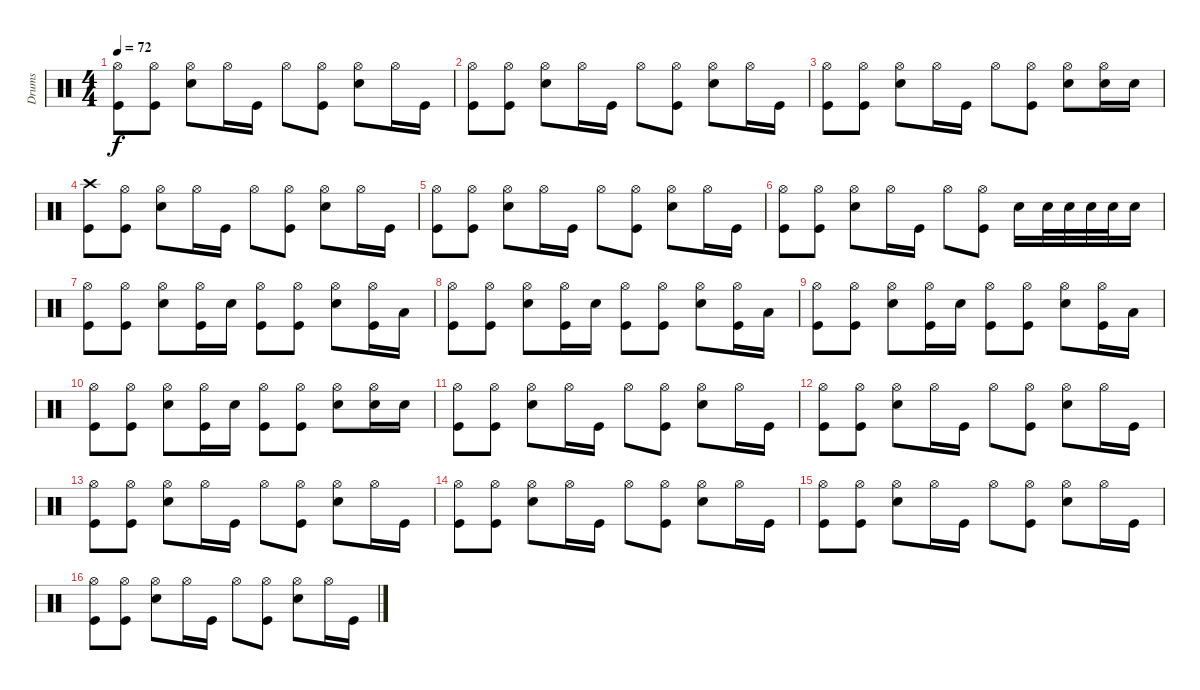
\track ("Drums" "Drums") {instrument percussion}
\staff {score}
\articulation defaults
\ts (4 4)
\tempo 72
\clef neutral
\ks c
("Kick (hit)" "Hi-Hat (open)").8{dy f} ("Kick (hit)" "Hi-Hat (open)").8 ("Snare (hit) 2" "Hi-Hat (open)").8 "Hi-Hat (open)".16 "Kick (hit)".16 "Hi-Hat (open)".8 ("Hi-Hat (open)" "Kick (hit)").8 ("Snare (hit) 2" "Hi-Hat (open)").8 "Hi-Hat (open)".16 "Kick (hit)".16 |
("Kick (hit)" "Hi-Hat (open)").8 ("Kick (hit)" "Hi-Hat (open)").8 ("Snare (hit) 2" "Hi-Hat (open)").8 "Hi-Hat (open)".16 "Kick (hit)".16 "Hi-Hat (open)".8 ("Hi-Hat (open)" "Kick (hit)").8 ("Snare (hit) 2" "Hi-Hat (open)").8 "Hi-Hat (open)".16 "Kick (hit)".16 |
("Kick (hit)" "Hi-Hat (open)").8 ("Kick (hit)" "Hi-Hat (open)").8 ("Snare (hit) 2" "Hi-Hat (open)").8 "Hi-Hat (open)".16 "Kick (hit)".16 "Hi-Hat (open)".8 ("Hi-Hat (open)" "Kick (hit)").8 ("Snare (hit) 2" "Hi-Hat (open)").8 ("Hi-Hat (open)" "Snare (hit) 2").16 "Snare (hit) 2".16 |
("Kick (hit)" "Crash high (hit)").8 ("Kick (hit)" "Hi-Hat (open)").8 ("Snare (hit) 2" "Hi-Hat (open)").8 "Hi-Hat (open)".16 "Kick (hit)".16 "Hi-Hat (open)".8 ("Hi-Hat (open)" "Kick (hit)").8 ("Snare (hit) 2" "Hi-Hat (open)").8 "Hi-Hat (open)".16 "Kick (hit)".16 |
("Kick (hit)" "Hi-Hat (open)").8 ("Kick (hit)" "Hi-Hat (open)").8 ("Snare (hit) 2" "Hi-Hat (open)").8 "Hi-Hat (open)".16 "Kick (hit)".16 "Hi-Hat (open)".8 ("Hi-Hat (open)" "Kick (hit)").8 ("Snare (hit) 2" "Hi-Hat (open)").8 "Hi-Hat (open)".16 "Kick (hit)".16 |
("Kick (hit)" "Hi-Hat (open)").8 ("Kick (hit)" "Hi-Hat (open)").8 ("Snare (hit) 2" "Hi-Hat (open)").8 "Hi-Hat (open)".16 "Kick (hit)".16 "Hi-Hat (open)".8 ("Hi-Hat (open)" "Kick (hit)").8 "Snare (hit) 2".16 "Snare (hit) 2".32 "Snare (hit) 2".32 "Snare (hit) 2".32 "Snare (hit) 2".32 "Snare (hit) 2".16 |
("Kick (hit)" "Hi-Hat (open)").8 ("Kick (hit)" "Hi-Hat (open)").8 ("Snare (hit) 2" "Hi-Hat (open)").8 ("Hi-Hat (open)" "Kick (hit)").16 "Snare (hit) 2".16 ("Kick (hit)" "Hi-Hat (open)").8 ("Kick (hit)" "Hi-Hat (open)").8 ("Snare (hit) 2" "Hi-Hat (open)").8 ("Kick (hit)" "Hi-Hat (open)").16 "Low Tom (hit)".16 |
("Kick (hit)" "Hi-Hat (open)").8 ("Kick (hit)" "Hi-Hat (open)").8 ("Snare (hit) 2" "Hi-Hat (open)").8 ("Hi-Hat (open)" "Kick (hit)").16 "Snare (hit) 2".16 ("Kick (hit)" "Hi-Hat (open)").8 ("Kick (hit)" "Hi-Hat (open)").8 ("Snare (hit) 2" "Hi-Hat (open)").8 ("Kick (hit)" "Hi-Hat (open)").16 "Low Tom (hit)".16 |
("Kick (hit)" "Hi-Hat (open)").8 ("Kick (hit)" "Hi-Hat (open)").8 ("Snare (hit) 2" "Hi-Hat (open)").8 ("Hi-Hat (open)" "Kick (hit)").16 "Snare (hit) 2".16 ("Kick (hit)" "Hi-Hat (open)").8 ("Kick (hit)" "Hi-Hat (open)").8 ("Snare (hit) 2" "Hi-Hat (open)").8 ("Kick (hit)" "Hi-Hat (open)").16 "Low Tom (hit)".16 |
("Kick (hit)" "Hi-Hat (open)").8 ("Kick (hit)" "Hi-Hat (open)").8 ("Snare (hit) 2" "Hi-Hat (open)").8 ("Hi-Hat (open)" "Kick (hit)").16 "Snare (hit) 2".16 ("Kick (hit)" "Hi-Hat (open)").8 ("Kick (hit)" "Hi-Hat (open)").8 ("Snare (hit) 2" "Hi-Hat (open)").8 ("Hi-Hat (open)" "Snare (hit) 2").16 "Snare (hit) 2".16 |
("Kick (hit)" "Hi-Hat (open)").8 ("Kick (hit)" "Hi-Hat (open)").8 ("Snare (hit) 2" "Hi-Hat (open)").8 "Hi-Hat (open)".16 "Kick (hit)".16 "Hi-Hat (open)".8 ("Hi-Hat (open)" "Kick (hit)").8 ("Snare (hit) 2" "Hi-Hat (open)").8 "Hi-Hat (open)".16 "Kick (hit)".16 |
("Kick (hit)" "Hi-Hat (open)").8 ("Kick (hit)" "Hi-Hat (open)").8 ("Snare (hit) 2" "Hi-Hat (open)").8 "Hi-Hat (open)".16 "Kick (hit)".16 "Hi-Hat (open)".8 ("Hi-Hat (open)" "Kick (hit)").8 ("Snare (hit) 2" "Hi-Hat (open)").8 "Hi-Hat (open)".16 "Kick (hit)".16 |
("Kick (hit)" "Hi-Hat (open)").8 ("Kick (hit)" "Hi-Hat (open)").8 ("Snare (hit) 2" "Hi-Hat (open)").8 "Hi-Hat (open)".16 "Kick (hit)".16 "Hi-Hat (open)".8 ("Hi-Hat (open)" "Kick (hit)").8 ("Snare (hit) 2" "Hi-Hat (open)").8 "Hi-Hat (open)".16 "Kick (hit)".16 |
("Kick (hit)" "Hi-Hat (open)").8 ("Kick (hit)" "Hi-Hat (open)").8 ("Snare (hit) 2" "Hi-Hat (open)").8 "Hi-Hat (open)".16 "Kick (hit)".16 "Hi-Hat (open)".8 ("Hi-Hat (open)" "Kick (hit)").8 ("Snare (hit) 2" "Hi-Hat (open)").8 "Hi-Hat (open)".16 "Kick (hit)".16 |
("Kick (hit)" "Hi-Hat (open)").8 ("Kick (hit)" "Hi-Hat (open)").8 ("Snare (hit) 2" "Hi-Hat (open)").8 "Hi-Hat (open)".16 "Kick (hit)".16 "Hi-Hat (open)".8 ("Hi-Hat (open)" "Kick (hit)").8 ("Snare (hit) 2" "Hi-Hat (open)").8 "Hi-Hat (open)".16 "Kick (hit)".16 |
("Kick (hit)" "Hi-Hat (open)").8 ("Kick (hit)" "Hi-Hat (open)").8 ("Snare (hit) 2" "Hi-Hat (open)").8 "Hi-Hat (open)".16 "Kick (hit)".16 "Hi-Hat (open)".8 ("Hi-Hat (open)" "Kick (hit)").8 ("Snare (hit) 2" "Hi-Hat (open)").8 "Hi-Hat (open)".16 "Kick (hit)".16
